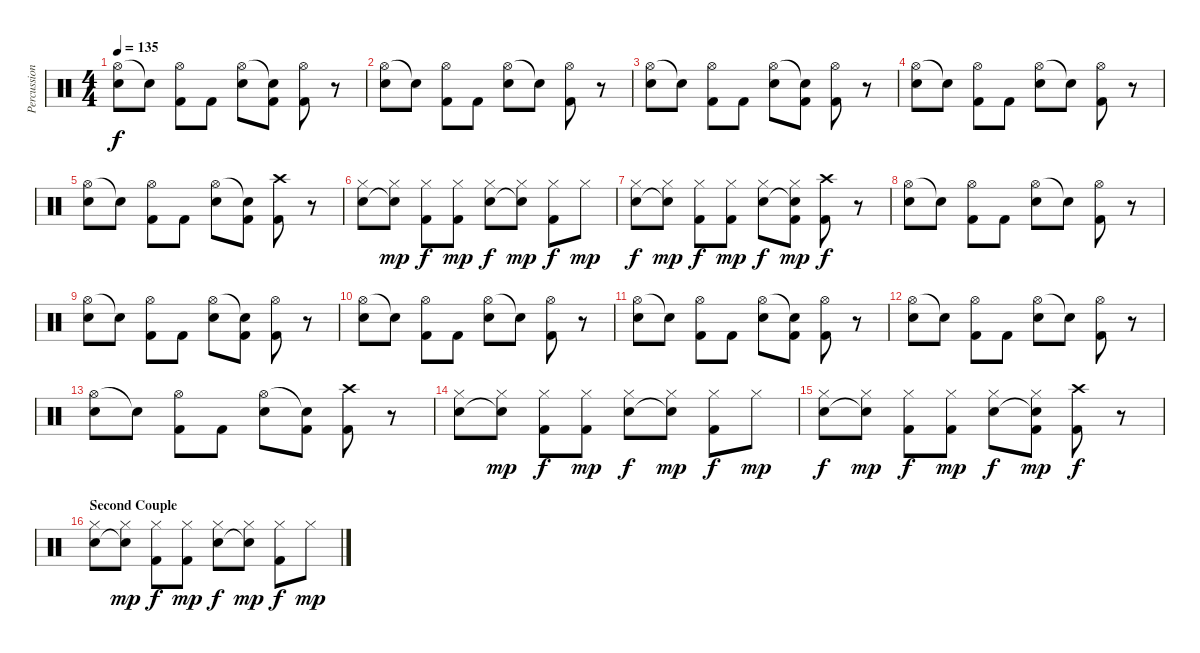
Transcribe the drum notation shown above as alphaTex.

\track ("Percussion" "Percussion") {instrument percussion}
\staff {score}
\articulation defaults
\ts (4 4)
\tempo 135
\clef neutral
\ks c
("Hi-Hat (open)" "Electric Snare (hit)").8{dy f} "Electric Snare (hit)"{t}.8 ("Hi-Hat (open)" "Kick (hit) 2").8 "Kick (hit) 2".8 ("Hi-Hat (open)" "Electric Snare (hit)").8 ("Electric Snare (hit)"{t} "Kick (hit) 2").8 ("Hi-Hat (open)" "Kick (hit) 2").8 r.8 |
("Hi-Hat (open)" "Electric Snare (hit)").8 "Electric Snare (hit)"{t}.8 ("Hi-Hat (open)" "Kick (hit) 2").8 "Kick (hit) 2".8 ("Hi-Hat (open)" "Electric Snare (hit)").8 "Electric Snare (hit)"{t}.8 ("Hi-Hat (open)" "Kick (hit) 2").8 r.8 |
("Hi-Hat (open)" "Electric Snare (hit)").8 "Electric Snare (hit)"{t}.8 ("Hi-Hat (open)" "Kick (hit) 2").8 "Kick (hit) 2".8 ("Hi-Hat (open)" "Electric Snare (hit)").8 ("Electric Snare (hit)"{t} "Kick (hit) 2").8 ("Hi-Hat (open)" "Kick (hit) 2").8 r.8 |
("Hi-Hat (open)" "Electric Snare (hit)").8 "Electric Snare (hit)"{t}.8 ("Hi-Hat (open)" "Kick (hit) 2").8 "Kick (hit) 2".8 ("Hi-Hat (open)" "Electric Snare (hit)").8 "Electric Snare (hit)"{t}.8 ("Hi-Hat (open)" "Kick (hit) 2").8 r.8 |
("Hi-Hat (open)" "Electric Snare (hit)").8 "Electric Snare (hit)"{t}.8 ("Hi-Hat (open)" "Kick (hit) 2").8 "Kick (hit) 2".8 ("Hi-Hat (open)" "Electric Snare (hit)").8 ("Electric Snare (hit)"{t} "Kick (hit) 2").8 ("Crash high (hit)" "Kick (hit) 2").8 r.8 |
("Hi-Hat (closed)" "Electric Snare (hit)").8 ("Hi-Hat (closed)" "Electric Snare (hit)"{t}).8{dy mp} ("Hi-Hat (closed)" "Kick (hit) 2").8{dy f} ("Hi-Hat (closed)" "Kick (hit) 2").8{dy mp} ("Hi-Hat (closed)" "Electric Snare (hit)").8{dy f} ("Hi-Hat (closed)" "Electric Snare (hit)"{t}).8{dy mp} ("Hi-Hat (closed)" "Kick (hit) 2").8{dy f} "Hi-Hat (closed)".8{dy mp} |
("Hi-Hat (closed)" "Electric Snare (hit)").8{dy f} ("Hi-Hat (closed)" "Electric Snare (hit)"{t}).8{dy mp} ("Hi-Hat (closed)" "Kick (hit) 2").8{dy f} ("Hi-Hat (closed)" "Kick (hit) 2").8{dy mp} ("Hi-Hat (closed)" "Electric Snare (hit)").8{dy f} ("Hi-Hat (closed)" "Electric Snare (hit)"{t} "Kick (hit) 2").8{dy mp} ("Crash high (hit)" "Kick (hit) 2").8{dy f} r.8 |
("Hi-Hat (open)" "Electric Snare (hit)").8 "Electric Snare (hit)"{t}.8 ("Hi-Hat (open)" "Kick (hit) 2").8 "Kick (hit) 2".8 ("Hi-Hat (open)" "Electric Snare (hit)").8 "Electric Snare (hit)"{t}.8 ("Hi-Hat (open)" "Kick (hit) 2").8 r.8 |
("Hi-Hat (open)" "Electric Snare (hit)").8 "Electric Snare (hit)"{t}.8 ("Hi-Hat (open)" "Kick (hit) 2").8 "Kick (hit) 2".8 ("Hi-Hat (open)" "Electric Snare (hit)").8 ("Electric Snare (hit)"{t} "Kick (hit) 2").8 ("Hi-Hat (open)" "Kick (hit) 2").8 r.8 |
("Hi-Hat (open)" "Electric Snare (hit)").8 "Electric Snare (hit)"{t}.8 ("Hi-Hat (open)" "Kick (hit) 2").8 "Kick (hit) 2".8 ("Hi-Hat (open)" "Electric Snare (hit)").8 "Electric Snare (hit)"{t}.8 ("Hi-Hat (open)" "Kick (hit) 2").8 r.8 |
("Hi-Hat (open)" "Electric Snare (hit)").8 "Electric Snare (hit)"{t}.8 ("Hi-Hat (open)" "Kick (hit) 2").8 "Kick (hit) 2".8 ("Hi-Hat (open)" "Electric Snare (hit)").8 ("Electric Snare (hit)"{t} "Kick (hit) 2").8 ("Hi-Hat (open)" "Kick (hit) 2").8 r.8 |
("Hi-Hat (open)" "Electric Snare (hit)").8 "Electric Snare (hit)"{t}.8 ("Hi-Hat (open)" "Kick (hit) 2").8 "Kick (hit) 2".8 ("Hi-Hat (open)" "Electric Snare (hit)").8 "Electric Snare (hit)"{t}.8 ("Hi-Hat (open)" "Kick (hit) 2").8 r.8 |
("Hi-Hat (open)" "Electric Snare (hit)").8 "Electric Snare (hit)"{t}.8 ("Hi-Hat (open)" "Kick (hit) 2").8 "Kick (hit) 2".8 ("Hi-Hat (open)" "Electric Snare (hit)").8 ("Electric Snare (hit)"{t} "Kick (hit) 2").8 ("Crash high (hit)" "Kick (hit) 2").8 r.8 |
("Hi-Hat (closed)" "Electric Snare (hit)").8 ("Hi-Hat (closed)" "Electric Snare (hit)"{t}).8{dy mp} ("Hi-Hat (closed)" "Kick (hit) 2").8{dy f} ("Hi-Hat (closed)" "Kick (hit) 2").8{dy mp} ("Hi-Hat (closed)" "Electric Snare (hit)").8{dy f} ("Hi-Hat (closed)" "Electric Snare (hit)"{t}).8{dy mp} ("Hi-Hat (closed)" "Kick (hit) 2").8{dy f} "Hi-Hat (closed)".8{dy mp} |
("Hi-Hat (closed)" "Electric Snare (hit)").8{dy f} ("Hi-Hat (closed)" "Electric Snare (hit)"{t}).8{dy mp} ("Hi-Hat (closed)" "Kick (hit) 2").8{dy f} ("Hi-Hat (closed)" "Kick (hit) 2").8{dy mp} ("Hi-Hat (closed)" "Electric Snare (hit)").8{dy f} ("Hi-Hat (closed)" "Electric Snare (hit)"{t} "Kick (hit) 2").8{dy mp} ("Crash high (hit)" "Kick (hit) 2").8{dy f} r.8 |
\section ("" "Second Couple")
("Hi-Hat (closed)" "Electric Snare (hit)").8 ("Hi-Hat (closed)" "Electric Snare (hit)"{t}).8{dy mp} ("Hi-Hat (closed)" "Kick (hit) 2").8{dy f} ("Hi-Hat (closed)" "Kick (hit) 2").8{dy mp} ("Hi-Hat (closed)" "Electric Snare (hit)").8{dy f} ("Hi-Hat (closed)" "Electric Snare (hit)"{t}).8{dy mp} ("Hi-Hat (closed)" "Kick (hit) 2").8{dy f} "Hi-Hat (closed)".8{dy mp}
